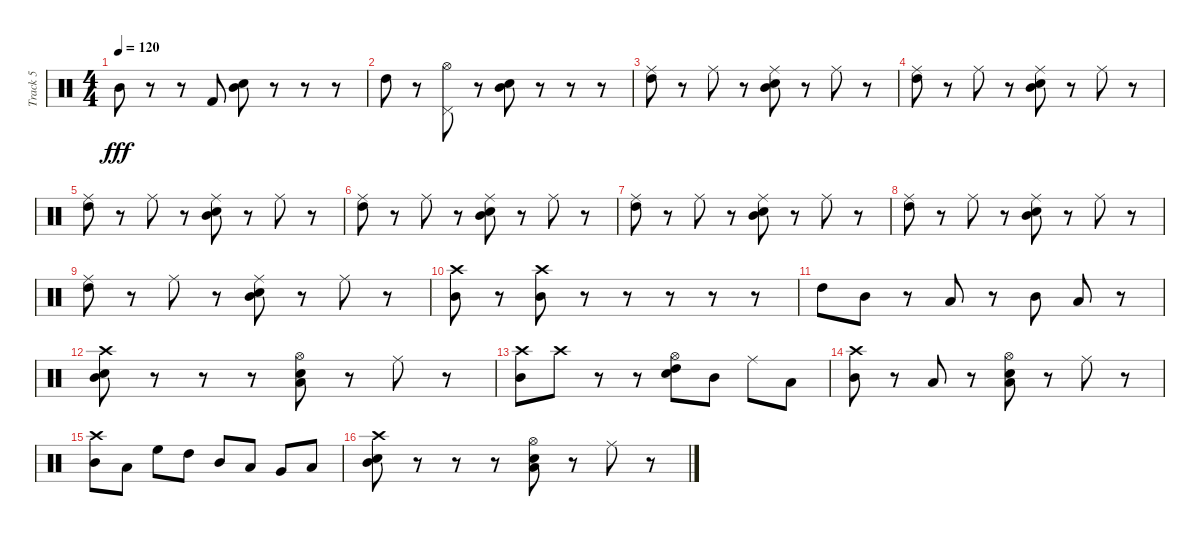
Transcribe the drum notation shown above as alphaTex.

\track ("Track 5" "Track 5") {instrument percussion}
\staff {score}
\articulation defaults
\ts (4 4)
\tempo 120
\clef neutral
\ks c "Mid Tom (hit)".8{dy fff}
r.8 r.8 "Kick (hit) 2".8 ("Mid Tom (hit)" "Snare (hit) 2").8 r.8 r.8 r.8 |
"High Tom (hit)".8 r.8 ("Hi-Hat (open)" "Pedal Hi-Hat (hit)").8 r.8 ("Mid Tom (hit)" "Snare (hit) 2").8 r.8 r.8 r.8 |
("High Tom (hit)" "Ride (middle)").8 r.8 "Ride (middle)".8 r.8 ("Mid Tom (hit)" "Snare (hit) 2" "Ride (middle)").8 r.8 "Ride (middle)".8 r.8 |
("High Tom (hit)" "Ride (middle)").8 r.8 "Ride (middle)".8 r.8 ("Mid Tom (hit)" "Snare (hit) 2" "Ride (middle)").8 r.8 "Ride (middle)".8 r.8 |
("High Tom (hit)" "Ride (middle)").8 r.8 "Ride (middle)".8 r.8 ("Mid Tom (hit)" "Snare (hit) 2" "Ride (middle)").8 r.8 "Ride (middle)".8 r.8 |
("High Tom (hit)" "Ride (middle)").8 r.8 "Ride (middle)".8 r.8 ("Mid Tom (hit)" "Snare (hit) 2" "Ride (middle)").8 r.8 "Ride (middle)".8 r.8 |
("High Tom (hit)" "Ride (middle)").8 r.8 "Ride (middle)".8 r.8 ("Mid Tom (hit)" "Snare (hit) 2" "Ride (middle)").8 r.8 "Ride (middle)".8 r.8 |
("High Tom (hit)" "Ride (middle)").8 r.8 "Ride (middle)".8 r.8 ("Mid Tom (hit)" "Snare (hit) 2" "Ride (middle)").8 r.8 "Ride (middle)".8 r.8 |
("High Tom (hit)" "Ride (middle)").8 r.8 "Ride (middle)".8 r.8 ("Mid Tom (hit)" "Snare (hit) 2" "Ride (middle)").8 r.8 "Ride (middle)".8 r.8 |
("Crash high (hit)" "Mid Tom (hit)").8 r.8 ("Crash high (hit)" "Mid Tom (hit)").8 r.8 r.8 r.8 r.8 r.8 |
"High Tom (hit)".8 "Mid Tom (hit)".8 r.8 "Low Tom (hit)".8 r.8 "Mid Tom (hit)".8 "Low Tom (hit)".8 r.8 |
("Snare (hit) 2" "Mid Tom (hit)" "Crash high (hit)").8 r.8 r.8 r.8 ("Low Tom (hit)" "Electric Snare (hit)" "Hi-Hat (open)").8 r.8 "Ride (middle)".8 r.8 |
("Mid Tom (hit)" "Crash high (hit)").8 "Crash high (hit)".8 r.8 r.8 ("High Tom (hit)" "Electric Snare (hit)" "Hi-Hat (open)").8 "Mid Tom (hit)".8 "Ride (middle)".8 "Low Tom (hit)".8 |
("Mid Tom (hit)" "Crash high (hit)").8 r.8 "Low Tom (hit)".8 r.8 ("Low Tom (hit)" "Electric Snare (hit)" "Hi-Hat (open)").8 r.8 "Ride (middle)".8 r.8 |
("Mid Tom (hit)" "Crash high (hit)").8 "Low Floor Tom (hit)".8 "High Floor Tom (hit)".8 "High Tom (hit)".8 "Mid Tom (hit)".8 "Low Tom (hit)".8 "Very Low Tom (hit)".8 "Low Floor Tom (hit)".8 |
("Snare (hit) 2" "Mid Tom (hit)" "Crash high (hit)").8 r.8 r.8 r.8 ("Low Tom (hit)" "Electric Snare (hit)" "Hi-Hat (open)").8 r.8 "Ride (middle)".8 r.8
